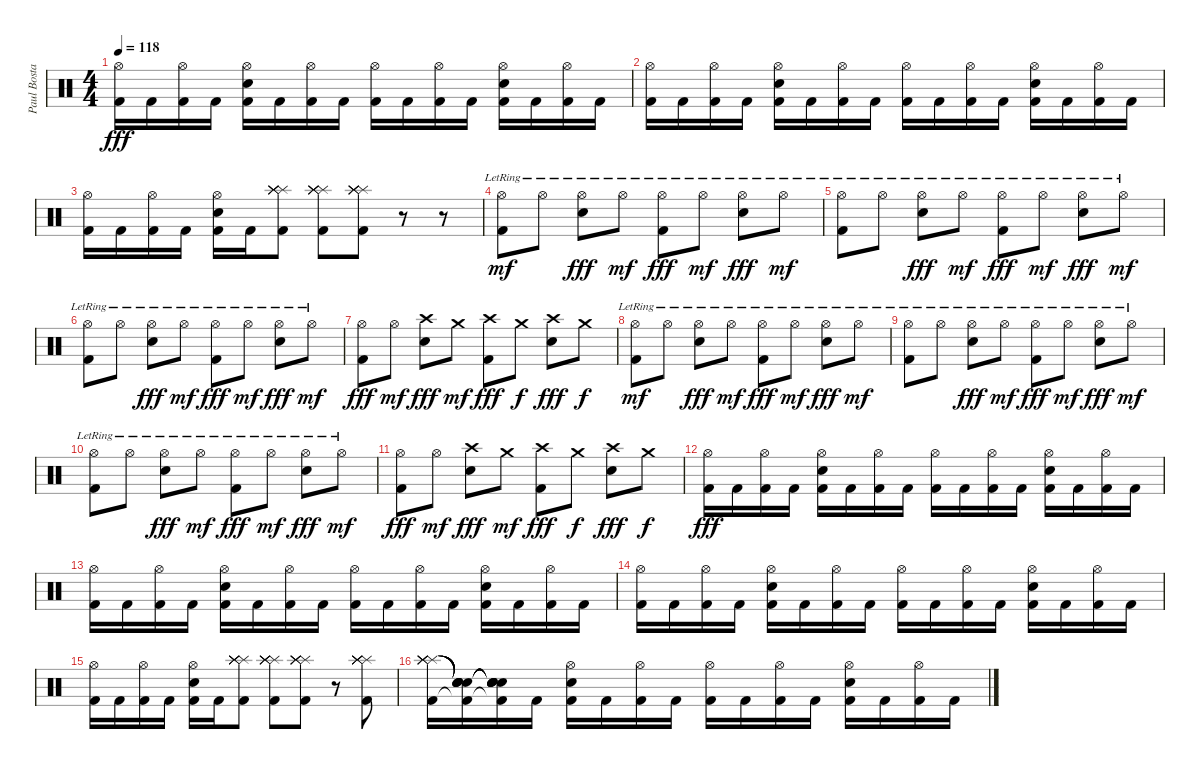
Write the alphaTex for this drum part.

\track ("Paul Bostaph" "Paul Bosta") {instrument percussion}
\staff {score}
\articulation defaults
\ts (4 4)
\tempo 118
\clef neutral
\ks c
("Hi-Hat (open)" "Kick (hit) 2").16{dy fff} "Kick (hit) 2".16 ("Hi-Hat (open)" "Kick (hit) 2").16 "Kick (hit) 2".16 ("Hi-Hat (open)" "Snare (hit) 2" "Kick (hit) 2").16 "Kick (hit) 2".16 ("Hi-Hat (open)" "Kick (hit) 2").16 "Kick (hit) 2".16 ("Hi-Hat (open)" "Kick (hit) 2").16 "Kick (hit) 2".16 ("Hi-Hat (open)" "Kick (hit) 2").16 "Kick (hit) 2".16 ("Hi-Hat (open)" "Snare (hit) 2" "Kick (hit) 2").16 "Kick (hit) 2".16 ("Hi-Hat (open)" "Kick (hit) 2").16 "Kick (hit) 2".16 |
("Hi-Hat (open)" "Kick (hit) 2").16 "Kick (hit) 2".16 ("Hi-Hat (open)" "Kick (hit) 2").16 "Kick (hit) 2".16 ("Hi-Hat (open)" "Snare (hit) 2" "Kick (hit) 2").16 "Kick (hit) 2".16 ("Hi-Hat (open)" "Kick (hit) 2").16 "Kick (hit) 2".16 ("Hi-Hat (open)" "Kick (hit) 2").16 "Kick (hit) 2".16 ("Hi-Hat (open)" "Kick (hit) 2").16 "Kick (hit) 2".16 ("Hi-Hat (open)" "Snare (hit) 2" "Kick (hit) 2").16 "Kick (hit) 2".16 ("Hi-Hat (open)" "Kick (hit) 2").16 "Kick (hit) 2".16 |
("Hi-Hat (open)" "Kick (hit) 2").16 "Kick (hit) 2".16 ("Hi-Hat (open)" "Kick (hit) 2").16 "Kick (hit) 2".16 ("Hi-Hat (open)" "Snare (hit) 2" "Kick (hit) 2").16 "Kick (hit) 2".16 ("Splash (hit)" "Splash (hit)" "Splash (hit)" "Splash (hit)" "Splash (hit)" "Kick (hit) 2").8 ("Splash (hit)" "Splash (hit)" "Splash (hit)" "Splash (hit)" "Splash (hit)" "Kick (hit) 2").8 ("Splash (hit)" "Splash (hit)" "Splash (hit)" "Splash (hit)" "Splash (hit)" "Kick (hit) 2").8 r.8 r.8 |
("Kick (hit) 2" "Hi-Hat (open)"{lr}).8{dy mf} "Hi-Hat (open)"{lr}.8 ("Hi-Hat (open)"{lr} "Snare (hit) 2").8{dy fff} "Hi-Hat (open)"{lr}.8{dy mf} ("Hi-Hat (open)"{lr} "Kick (hit) 2").8{dy fff} "Hi-Hat (open)"{lr}.8{dy mf} ("Hi-Hat (open)"{lr} "Snare (hit) 2").8{dy fff} "Hi-Hat (open)"{lr}.8{dy mf} |
("Kick (hit) 2" "Hi-Hat (open)"{lr}).8 "Hi-Hat (open)"{lr}.8 ("Hi-Hat (open)"{lr} "Snare (hit) 2").8{dy fff} "Hi-Hat (open)"{lr}.8{dy mf} ("Hi-Hat (open)"{lr} "Kick (hit) 2").8{dy fff} "Hi-Hat (open)"{lr}.8{dy mf} ("Hi-Hat (open)"{lr} "Snare (hit) 2").8{dy fff} "Hi-Hat (open)"{lr}.8{dy mf} |
("Kick (hit) 2" "Hi-Hat (open)"{lr}).8 "Hi-Hat (open)"{lr}.8 ("Hi-Hat (open)"{lr} "Snare (hit) 2").8{dy fff} "Hi-Hat (open)"{lr}.8{dy mf} ("Hi-Hat (open)"{lr} "Kick (hit) 2").8{dy fff} "Hi-Hat (open)"{lr}.8{dy mf} ("Hi-Hat (open)"{lr} "Snare (hit) 2").8{dy fff} "Hi-Hat (open)"{lr}.8{dy mf} |
("Hi-Hat (open)" "Kick (hit) 2").8{dy fff} "Hi-Hat (open)".8{dy mf} ("Crash high (hit)" "Snare (hit) 2").8{dy fff} "Crash medium (hit)".8{dy mf} ("Crash high (hit)" "Kick (hit) 2").8{dy fff} "Crash medium (hit)".8{dy f} ("Crash high (hit)" "Snare (hit) 2").8{dy fff} "Crash medium (hit)".8{dy f} |
("Kick (hit) 2" "Hi-Hat (open)"{lr}).8{dy mf} "Hi-Hat (open)"{lr}.8 ("Hi-Hat (open)"{lr} "Snare (hit) 2").8{dy fff} "Hi-Hat (open)"{lr}.8{dy mf} ("Hi-Hat (open)"{lr} "Kick (hit) 2").8{dy fff} "Hi-Hat (open)"{lr}.8{dy mf} ("Hi-Hat (open)"{lr} "Snare (hit) 2").8{dy fff} "Hi-Hat (open)"{lr}.8{dy mf} |
("Kick (hit) 2" "Hi-Hat (open)"{lr}).8 "Hi-Hat (open)"{lr}.8 ("Hi-Hat (open)"{lr} "Snare (hit) 2").8{dy fff} "Hi-Hat (open)"{lr}.8{dy mf} ("Hi-Hat (open)"{lr} "Kick (hit) 2").8{dy fff} "Hi-Hat (open)"{lr}.8{dy mf} ("Hi-Hat (open)"{lr} "Snare (hit) 2").8{dy fff} "Hi-Hat (open)"{lr}.8{dy mf} |
("Kick (hit) 2" "Hi-Hat (open)"{lr}).8 "Hi-Hat (open)"{lr}.8 ("Hi-Hat (open)"{lr} "Snare (hit) 2").8{dy fff} "Hi-Hat (open)"{lr}.8{dy mf} ("Hi-Hat (open)"{lr} "Kick (hit) 2").8{dy fff} "Hi-Hat (open)"{lr}.8{dy mf} ("Hi-Hat (open)"{lr} "Snare (hit) 2").8{dy fff} "Hi-Hat (open)"{lr}.8{dy mf} |
("Hi-Hat (open)" "Kick (hit) 2").8{dy fff} "Hi-Hat (open)".8{dy mf} ("Crash high (hit)" "Snare (hit) 2").8{dy fff} "Crash medium (hit)".8{dy mf} ("Crash high (hit)" "Kick (hit) 2").8{dy fff} "Crash medium (hit)".8{dy f} ("Crash high (hit)" "Snare (hit) 2").8{dy fff} "Crash medium (hit)".8{dy f} |
("Hi-Hat (open)" "Kick (hit) 2").16{dy fff} "Kick (hit) 2".16 ("Hi-Hat (open)" "Kick (hit) 2").16 "Kick (hit) 2".16 ("Hi-Hat (open)" "Snare (hit) 2" "Kick (hit) 2").16 "Kick (hit) 2".16 ("Hi-Hat (open)" "Kick (hit) 2").16 "Kick (hit) 2".16 ("Hi-Hat (open)" "Kick (hit) 2").16 "Kick (hit) 2".16 ("Hi-Hat (open)" "Kick (hit) 2").16 "Kick (hit) 2".16 ("Hi-Hat (open)" "Snare (hit) 2" "Kick (hit) 2").16 "Kick (hit) 2".16 ("Hi-Hat (open)" "Kick (hit) 2").16 "Kick (hit) 2".16 |
("Hi-Hat (open)" "Kick (hit) 2").16 "Kick (hit) 2".16 ("Hi-Hat (open)" "Kick (hit) 2").16 "Kick (hit) 2".16 ("Hi-Hat (open)" "Snare (hit) 2" "Kick (hit) 2").16 "Kick (hit) 2".16 ("Hi-Hat (open)" "Kick (hit) 2").16 "Kick (hit) 2".16 ("Hi-Hat (open)" "Kick (hit) 2").16 "Kick (hit) 2".16 ("Hi-Hat (open)" "Kick (hit) 2").16 "Kick (hit) 2".16 ("Hi-Hat (open)" "Snare (hit) 2" "Kick (hit) 2").16 "Kick (hit) 2".16 ("Hi-Hat (open)" "Kick (hit) 2").16 "Kick (hit) 2".16 |
("Hi-Hat (open)" "Kick (hit) 2").16 "Kick (hit) 2".16 ("Hi-Hat (open)" "Kick (hit) 2").16 "Kick (hit) 2".16 ("Hi-Hat (open)" "Snare (hit) 2" "Kick (hit) 2").16 "Kick (hit) 2".16 ("Hi-Hat (open)" "Kick (hit) 2").16 "Kick (hit) 2".16 ("Hi-Hat (open)" "Kick (hit) 2").16 "Kick (hit) 2".16 ("Hi-Hat (open)" "Kick (hit) 2").16 "Kick (hit) 2".16 ("Hi-Hat (open)" "Snare (hit) 2" "Kick (hit) 2").16 "Kick (hit) 2".16 ("Hi-Hat (open)" "Kick (hit) 2").16 "Kick (hit) 2".16 |
("Hi-Hat (open)" "Kick (hit) 2").16 "Kick (hit) 2".16 ("Hi-Hat (open)" "Kick (hit) 2").16 "Kick (hit) 2".16 ("Hi-Hat (open)" "Snare (hit) 2" "Kick (hit) 2").16 "Kick (hit) 2".16 ("Splash (hit)" "Splash (hit)" "Splash (hit)" "Splash (hit)" "Splash (hit)" "Kick (hit) 2").8 ("Splash (hit)" "Splash (hit)" "Splash (hit)" "Splash (hit)" "Splash (hit)" "Kick (hit) 2").8 ("Splash (hit)" "Splash (hit)" "Splash (hit)" "Splash (hit)" "Splash (hit)" "Kick (hit) 2").8 r.8 ("Splash (hit)" "Splash (hit)" "Splash (hit)" "Splash (hit)" "Splash (hit)" "Kick (hit) 2").8 |
("Splash (hit)" "Splash (hit)" "Splash (hit)" "Splash (hit)" "Splash (hit)" "Kick (hit) 2").16 ("Snare (hit)"{t} "Snare (hit)"{t} "Snare (hit)"{t} "Snare (hit)"{t} "Snare (hit)"{t} "Kick (hit) 2"{t}).16 ("Snare (hit)"{t} "Snare (hit)"{t} "Snare (hit)"{t} "Snare (hit)"{t} "Snare (hit)"{t} "Kick (hit) 2"{t}).16 "Kick (hit) 2".16 ("Hi-Hat (open)" "Snare (hit) 2" "Kick (hit) 2").16 "Kick (hit) 2".16 ("Hi-Hat (open)" "Kick (hit) 2").16 "Kick (hit) 2".16 ("Hi-Hat (open)" "Kick (hit) 2").16 "Kick (hit) 2".16 ("Hi-Hat (open)" "Kick (hit) 2").16 "Kick (hit) 2".16 ("Hi-Hat (open)" "Snare (hit) 2" "Kick (hit) 2").16 "Kick (hit) 2".16 ("Hi-Hat (open)" "Kick (hit) 2").16 "Kick (hit) 2".16
